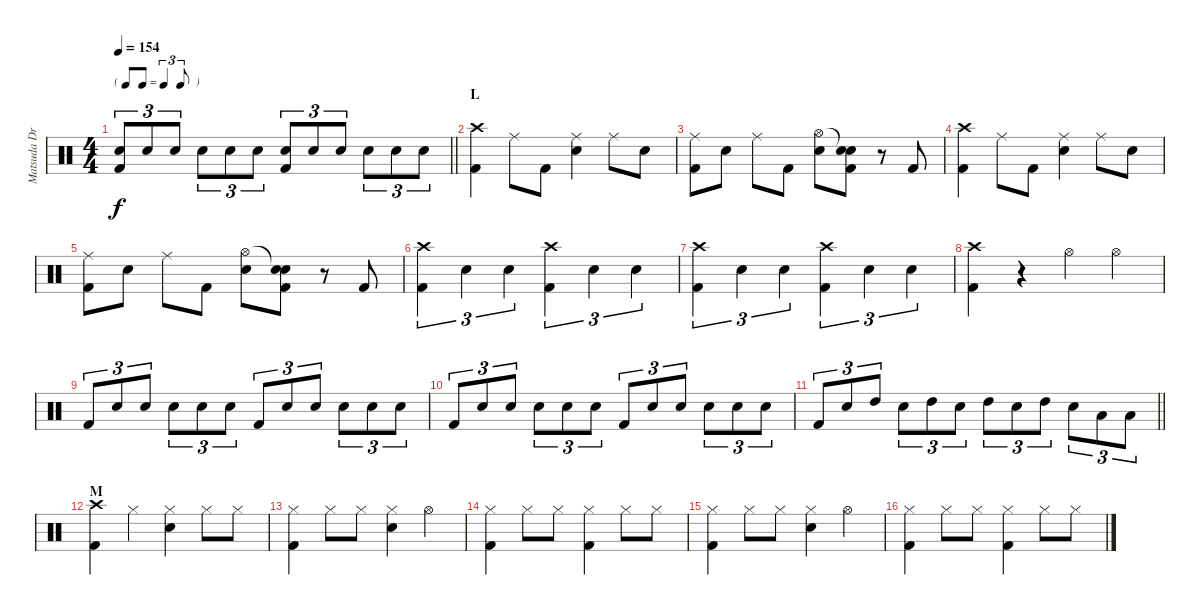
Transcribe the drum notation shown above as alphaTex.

\track ("Matsuda Drums" "Matsuda Dr") {instrument percussion}
\staff {score}
\articulation defaults
\ts (4 4)
\tf triplet8th
\tempo 154
\clef neutral
\barLineRight lightlight
\ks c
("Snare (hit) 2" "Kick (hit) 2").8{tu (3 2) dy f} "Snare (hit) 2".8{tu (3 2)} "Snare (hit) 2".8{tu (3 2)} "Snare (hit) 2".8{tu (3 2)} "Snare (hit) 2".8{tu (3 2)} "Snare (hit) 2".8{tu (3 2)} ("Snare (hit) 2" "Kick (hit) 2").8{tu (3 2)} "Snare (hit) 2".8{tu (3 2)} "Snare (hit) 2".8{tu (3 2)} "Snare (hit) 2".8{tu (3 2)} "Snare (hit) 2".8{tu (3 2)} "Snare (hit) 2".8{tu (3 2)} |
\section ("" "L")
("Crash high (hit)" "Kick (hit) 2").4 "Ride (middle)".8 "Kick (hit) 2".8 ("Ride (middle)" "Snare (hit) 2").4 "Ride (middle)".8 "Snare (hit) 2".8 |
("Ride (middle)" "Kick (hit) 2").8 "Snare (hit) 2".8 "Ride (middle)".8 "Kick (hit) 2".8 ("Hi-Hat (open)" "Snare (hit) 2").8 ("Snare (hit)"{t} "Snare (hit) 2" "Kick (hit) 2").8 r.8 "Kick (hit) 2".8 |
("Crash high (hit)" "Kick (hit) 2").4 "Ride (middle)".8 "Kick (hit) 2".8 ("Ride (middle)" "Snare (hit) 2").4 "Ride (middle)".8 "Snare (hit) 2".8 |
("Ride (middle)" "Kick (hit) 2").8 "Snare (hit) 2".8 "Ride (middle)".8 "Kick (hit) 2".8 ("Hi-Hat (open)" "Snare (hit) 2").8 ("Snare (hit)"{t} "Snare (hit) 2" "Kick (hit) 2").8 r.8 "Kick (hit) 2".8 |
("Crash high (hit)" "Kick (hit) 2").4{tu (3 2)} "Snare (hit) 2".4{tu (3 2)} "Snare (hit) 2".4{tu (3 2)} ("Crash high (hit)" "Kick (hit) 2").4{tu (3 2)} "Snare (hit) 2".4{tu (3 2)} "Snare (hit) 2".4{tu (3 2)} |
("Crash high (hit)" "Kick (hit) 2").4{tu (3 2)} "Snare (hit) 2".4{tu (3 2)} "Snare (hit) 2".4{tu (3 2)} ("Crash high (hit)" "Kick (hit) 2").4{tu (3 2)} "Snare (hit) 2".4{tu (3 2)} "Snare (hit) 2".4{tu (3 2)} |
("Crash high (hit)" "Kick (hit) 2").4 r.4 "Hi-Hat (open)".4 "Hi-Hat (open)".4 |
"Kick (hit) 2".8{tu (3 2)} "Snare (hit) 2".8{tu (3 2)} "Snare (hit) 2".8{tu (3 2)} "Snare (hit) 2".8{tu (3 2)} "Snare (hit) 2".8{tu (3 2)} "Snare (hit) 2".8{tu (3 2)} "Kick (hit) 2".8{tu (3 2)} "Snare (hit) 2".8{tu (3 2)} "Snare (hit) 2".8{tu (3 2)} "Snare (hit) 2".8{tu (3 2)} "Snare (hit) 2".8{tu (3 2)} "Snare (hit) 2".8{tu (3 2)} |
"Kick (hit) 2".8{tu (3 2)} "Snare (hit) 2".8{tu (3 2)} "Snare (hit) 2".8{tu (3 2)} "Snare (hit) 2".8{tu (3 2)} "Snare (hit) 2".8{tu (3 2)} "Snare (hit) 2".8{tu (3 2)} "Kick (hit) 2".8{tu (3 2)} "Snare (hit) 2".8{tu (3 2)} "Snare (hit) 2".8{tu (3 2)} "Snare (hit) 2".8{tu (3 2)} "Snare (hit) 2".8{tu (3 2)} "Snare (hit) 2".8{tu (3 2)} |
\barLineRight lightlight "Kick (hit) 2".8{tu (3 2)} "Snare (hit) 2".8{tu (3 2)} "High Tom (hit)".8{tu (3 2)} "Snare (hit) 2".8{tu (3 2)} "High Tom (hit)".8{tu (3 2)} "Snare (hit) 2".8{tu (3 2)} "High Tom (hit)".8{tu (3 2)} "Snare (hit) 2".8{tu (3 2)} "High Tom (hit)".8{tu (3 2)} "Snare (hit) 2".8{tu (3 2)} "Low Floor Tom (hit)".8{tu (3 2)} "Low Floor Tom (hit)".8{tu (3 2)}
|
\section ("" "M")
("Crash high (hit)" "Kick (hit) 2").4 "Hi-Hat (closed)".4 ("Hi-Hat (closed)" "Snare (hit) 2").4 "Hi-Hat (closed)".8 "Hi-Hat (closed)".8 |
("Hi-Hat (closed)" "Kick (hit) 2").4 "Hi-Hat (closed)".8 "Hi-Hat (closed)".8 ("Hi-Hat (closed)" "Snare (hit) 2").4 "Hi-Hat (open)".4 |
("Hi-Hat (closed)" "Kick (hit) 2").4 "Hi-Hat (closed)".8 "Hi-Hat (closed)".8 ("Hi-Hat (closed)" "Kick (hit) 2").4 "Hi-Hat (closed)".8 "Hi-Hat (closed)".8 |
("Hi-Hat (closed)" "Kick (hit) 2").4 "Hi-Hat (closed)".8 "Hi-Hat (closed)".8 ("Hi-Hat (closed)" "Snare (hit) 2").4 "Hi-Hat (open)".4 |
("Hi-Hat (closed)" "Kick (hit) 2").4 "Hi-Hat (closed)".8 "Hi-Hat (closed)".8 ("Hi-Hat (closed)" "Kick (hit) 2").4 "Hi-Hat (closed)".8 "Hi-Hat (closed)".8
